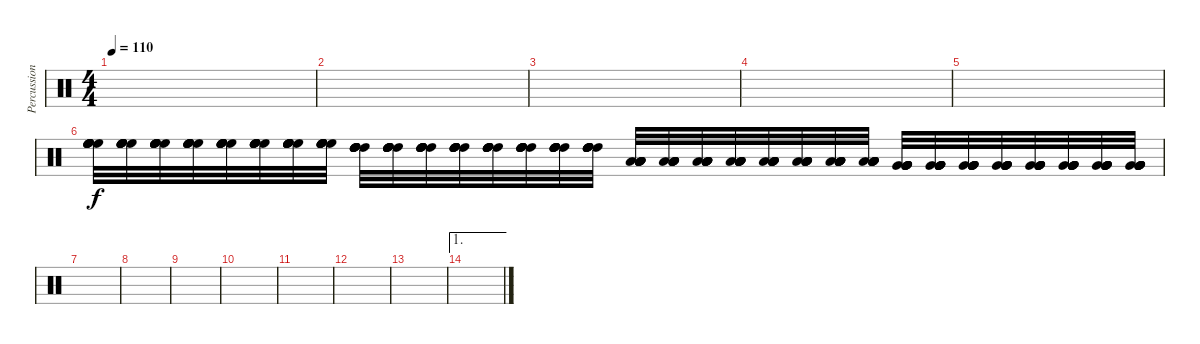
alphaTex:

\track ("Percussion 5" "Percussion") {instrument percussion}
\staff {score}
\articulation defaults
\ts (4 4)
\tempo 110
\clef neutral
\ks c
|
|
|
|
|
("High Floor Tom (hit)" "High Floor Tom (hit)" "High Floor Tom (hit)" "High Floor Tom (hit)" "High Floor Tom (hit)" "High Floor Tom (hit)").32 ("High Floor Tom (hit)" "High Floor Tom (hit)" "High Floor Tom (hit)" "High Floor Tom (hit)" "High Floor Tom (hit)" "High Floor Tom (hit)").32 ("High Floor Tom (hit)" "High Floor Tom (hit)" "High Floor Tom (hit)" "High Floor Tom (hit)" "High Floor Tom (hit)" "High Floor Tom (hit)").32 ("High Floor Tom (hit)" "High Floor Tom (hit)" "High Floor Tom (hit)" "High Floor Tom (hit)" "High Floor Tom (hit)" "High Floor Tom (hit)").32 ("High Floor Tom (hit)" "High Floor Tom (hit)" "High Floor Tom (hit)" "High Floor Tom (hit)" "High Floor Tom (hit)" "High Floor Tom (hit)").32 ("High Floor Tom (hit)" "High Floor Tom (hit)" "High Floor Tom (hit)" "High Floor Tom (hit)" "High Floor Tom (hit)" "High Floor Tom (hit)").32 ("High Floor Tom (hit)" "High Floor Tom (hit)" "High Floor Tom (hit)" "High Floor Tom (hit)" "High Floor Tom (hit)" "High Floor Tom (hit)").32 ("High Floor Tom (hit)" "High Floor Tom (hit)" "High Floor Tom (hit)" "High Floor Tom (hit)" "High Floor Tom (hit)" "High Floor Tom (hit)").32 ("High Tom (hit)" "High Tom (hit)" "High Tom (hit)" "High Tom (hit)" "High Tom (hit)" "High Tom (hit)").32 ("High Tom (hit)" "High Tom (hit)" "High Tom (hit)" "High Tom (hit)" "High Tom (hit)" "High Tom (hit)").32 ("High Tom (hit)" "High Tom (hit)" "High Tom (hit)" "High Tom (hit)" "High Tom (hit)" "High Tom (hit)").32 ("High Tom (hit)" "High Tom (hit)" "High Tom (hit)" "High Tom (hit)" "High Tom (hit)" "High Tom (hit)").32 ("High Tom (hit)" "High Tom (hit)" "High Tom (hit)" "High Tom (hit)" "High Tom (hit)" "High Tom (hit)").32 ("High Tom (hit)" "High Tom (hit)" "High Tom (hit)" "High Tom (hit)" "High Tom (hit)" "High Tom (hit)").32 ("High Tom (hit)" "High Tom (hit)" "High Tom (hit)" "High Tom (hit)" "High Tom (hit)" "High Tom (hit)").32 ("High Tom (hit)" "High Tom (hit)" "High Tom (hit)" "High Tom (hit)" "High Tom (hit)" "High Tom (hit)").32 ("Low Tom (hit)" "Low Tom (hit)" "Low Tom (hit)" "Low Tom (hit)" "Low Tom (hit)" "Low Tom (hit)").32 ("Low Tom (hit)" "Low Tom (hit)" "Low Tom (hit)" "Low Tom (hit)" "Low Tom (hit)" "Low Tom (hit)").32 ("Low Tom (hit)" "Low Tom (hit)" "Low Tom (hit)" "Low Tom (hit)" "Low Tom (hit)" "Low Tom (hit)").32 ("Low Tom (hit)" "Low Tom (hit)" "Low Tom (hit)" "Low Tom (hit)" "Low Tom (hit)" "Low Tom (hit)").32 ("Low Tom (hit)" "Low Tom (hit)" "Low Tom (hit)" "Low Tom (hit)" "Low Tom (hit)" "Low Tom (hit)").32 ("Low Tom (hit)" "Low Tom (hit)" "Low Tom (hit)" "Low Tom (hit)" "Low Tom (hit)" "Low Tom (hit)").32 ("Low Tom (hit)" "Low Tom (hit)" "Low Tom (hit)" "Low Tom (hit)" "Low Tom (hit)" "Low Tom (hit)").32 ("Low Tom (hit)" "Low Tom (hit)" "Low Tom (hit)" "Low Tom (hit)" "Low Tom (hit)" "Low Tom (hit)").32 ("Very Low Tom (hit)" "Very Low Tom (hit)" "Very Low Tom (hit)" "Very Low Tom (hit)" "Very Low Tom (hit)" "Very Low Tom (hit)").32 ("Very Low Tom (hit)" "Very Low Tom (hit)" "Very Low Tom (hit)" "Very Low Tom (hit)" "Very Low Tom (hit)" "Very Low Tom (hit)").32 ("Very Low Tom (hit)" "Very Low Tom (hit)" "Very Low Tom (hit)" "Very Low Tom (hit)" "Very Low Tom (hit)" "Very Low Tom (hit)").32 ("Very Low Tom (hit)" "Very Low Tom (hit)" "Very Low Tom (hit)" "Very Low Tom (hit)" "Very Low Tom (hit)" "Very Low Tom (hit)").32 ("Very Low Tom (hit)" "Very Low Tom (hit)" "Very Low Tom (hit)" "Very Low Tom (hit)" "Very Low Tom (hit)" "Very Low Tom (hit)").32 ("Very Low Tom (hit)" "Very Low Tom (hit)" "Very Low Tom (hit)" "Very Low Tom (hit)" "Very Low Tom (hit)" "Very Low Tom (hit)").32 ("Very Low Tom (hit)" "Very Low Tom (hit)" "Very Low Tom (hit)" "Very Low Tom (hit)" "Very Low Tom (hit)" "Very Low Tom (hit)").32 ("Very Low Tom (hit)" "Very Low Tom (hit)" "Very Low Tom (hit)" "Very Low Tom (hit)" "Very Low Tom (hit)" "Very Low Tom (hit)").32 |
|
|
|
|
|
|
|
\ae 1
